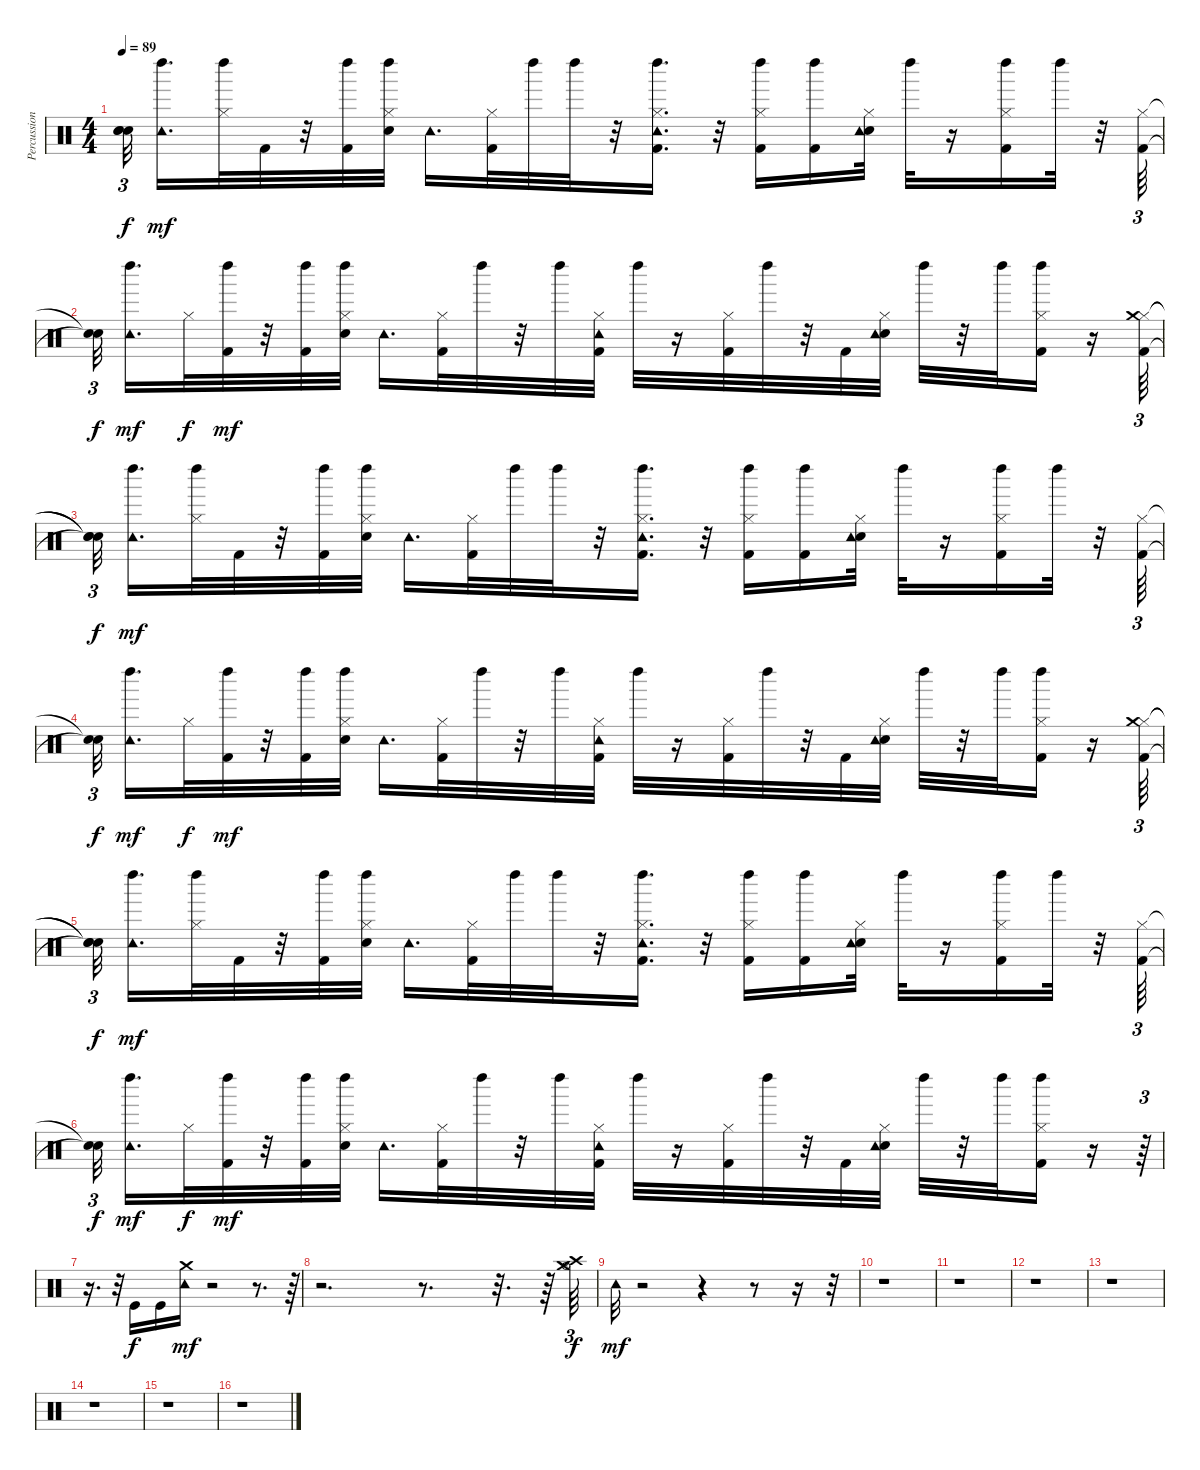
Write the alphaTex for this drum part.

\track ("Percussion" "Percussion") {instrument percussion}
\staff {score}
\articulation defaults
\ts (4 4)
\tempo 89
\clef neutral
\ks c
("Snare (hit)"{t} "Snare (hit)"{t} "Snare (hit)"{t}).32{tu (3 2) dy f} ("Tambourine (hit)" "Left Maraca (hit)").16{d dy mf} ("Hi-Hat (closed)" "Left Maraca (hit)").32 "Kick (hit) 2".32 r.32 ("Left Maraca (hit)" "Kick (hit) 2").32 ("Hi-Hat (closed)" "Left Maraca (hit)" "Snare (hit) 2").32 "Tambourine (hit)".16{d} ("Hi-Hat (closed)" "Kick (hit) 2").32 "Left Maraca (hit)".32 "Left Maraca (hit)".32 r.32 ("Hi-Hat (closed)" "Tambourine (hit)" "Left Maraca (hit)" "Kick (hit) 2").16{d} r.32 ("Hi-Hat (closed)" "Left Maraca (hit)" "Kick (hit) 2").16 ("Left Maraca (hit)" "Kick (hit) 2").16 ("Hi-Hat (closed)" "Snare (hit) 2" "Tambourine (hit)").32 "Left Maraca (hit)".32 r.16 ("Kick (hit) 2" "Hi-Hat (closed)" "Left Maraca (hit)").16 "Left Maraca (hit)".32 r.32 ("Hi-Hat (closed)" "Kick (hit) 2").64{tu (3 2)} |
("Snare (hit)"{t} "Snare (hit)"{t}).32{tu (3 2) dy f} ("Left Maraca (hit)" "Tambourine (hit)").16{d dy mf} "Hi-Hat (closed)".32{dy f} ("Left Maraca (hit)" "Kick (hit) 2").32{dy mf} r.32 ("Kick (hit) 2" "Left Maraca (hit)").32 ("Hi-Hat (closed)" "Snare (hit) 2" "Left Maraca (hit)").32 "Tambourine (hit)".16{d} ("Hi-Hat (closed)" "Kick (hit) 2").32 "Left Maraca (hit)".32 r.32 "Left Maraca (hit)".32 ("Hi-Hat (closed)" "Tambourine (hit)" "Kick (hit) 2").32 "Left Maraca (hit)".32 r.16 ("Hi-Hat (closed)" "Kick (hit) 2").32 "Left Maraca (hit)".32 r.32 "Kick (hit) 2".32 ("Hi-Hat (closed)" "Snare (hit) 2" "Tambourine (hit)").32 "Left Maraca (hit)".32 r.32 "Left Maraca (hit)".32 ("Kick (hit) 2" "Hi-Hat (closed)" "Left Maraca (hit)").16 r.16 ("Hi-Hat (closed)" "Crash medium (hit)" "Kick (hit) 2").64{tu (3 2)} |
("Snare (hit)"{t} "Snare (hit)"{t} "Snare (hit)"{t}).32{tu (3 2) dy f} ("Tambourine (hit)" "Left Maraca (hit)").16{d dy mf} ("Hi-Hat (closed)" "Left Maraca (hit)").32 "Kick (hit) 2".32 r.32 ("Left Maraca (hit)" "Kick (hit) 2").32 ("Hi-Hat (closed)" "Left Maraca (hit)" "Snare (hit) 2").32 "Tambourine (hit)".16{d} ("Hi-Hat (closed)" "Kick (hit) 2").32 "Left Maraca (hit)".32 "Left Maraca (hit)".32 r.32 ("Hi-Hat (closed)" "Tambourine (hit)" "Left Maraca (hit)" "Kick (hit) 2").16{d} r.32 ("Hi-Hat (closed)" "Left Maraca (hit)" "Kick (hit) 2").16 ("Left Maraca (hit)" "Kick (hit) 2").16 ("Hi-Hat (closed)" "Snare (hit) 2" "Tambourine (hit)").32 "Left Maraca (hit)".32 r.16 ("Kick (hit) 2" "Hi-Hat (closed)" "Left Maraca (hit)").16 "Left Maraca (hit)".32 r.32 ("Hi-Hat (closed)" "Kick (hit) 2").64{tu (3 2)} |
("Snare (hit)"{t} "Snare (hit)"{t}).32{tu (3 2) dy f} ("Left Maraca (hit)" "Tambourine (hit)").16{d dy mf} "Hi-Hat (closed)".32{dy f} ("Left Maraca (hit)" "Kick (hit) 2").32{dy mf} r.32 ("Kick (hit) 2" "Left Maraca (hit)").32 ("Hi-Hat (closed)" "Snare (hit) 2" "Left Maraca (hit)").32 "Tambourine (hit)".16{d} ("Hi-Hat (closed)" "Kick (hit) 2").32 "Left Maraca (hit)".32 r.32 "Left Maraca (hit)".32 ("Hi-Hat (closed)" "Tambourine (hit)" "Kick (hit) 2").32 "Left Maraca (hit)".32 r.16 ("Hi-Hat (closed)" "Kick (hit) 2").32 "Left Maraca (hit)".32 r.32 "Kick (hit) 2".32 ("Hi-Hat (closed)" "Snare (hit) 2" "Tambourine (hit)").32 "Left Maraca (hit)".32 r.32 "Left Maraca (hit)".32 ("Kick (hit) 2" "Hi-Hat (closed)" "Left Maraca (hit)").16 r.16 ("Hi-Hat (closed)" "Crash medium (hit)" "Kick (hit) 2").64{tu (3 2)} |
("Snare (hit)"{t} "Snare (hit)"{t} "Snare (hit)"{t}).32{tu (3 2) dy f} ("Tambourine (hit)" "Left Maraca (hit)").16{d dy mf} ("Hi-Hat (closed)" "Left Maraca (hit)").32 "Kick (hit) 2".32 r.32 ("Left Maraca (hit)" "Kick (hit) 2").32 ("Hi-Hat (closed)" "Left Maraca (hit)" "Snare (hit) 2").32 "Tambourine (hit)".16{d} ("Hi-Hat (closed)" "Kick (hit) 2").32 "Left Maraca (hit)".32 "Left Maraca (hit)".32 r.32 ("Hi-Hat (closed)" "Tambourine (hit)" "Left Maraca (hit)" "Kick (hit) 2").16{d} r.32 ("Hi-Hat (closed)" "Left Maraca (hit)" "Kick (hit) 2").16 ("Left Maraca (hit)" "Kick (hit) 2").16 ("Hi-Hat (closed)" "Snare (hit) 2" "Tambourine (hit)").32 "Left Maraca (hit)".32 r.16 ("Kick (hit) 2" "Hi-Hat (closed)" "Left Maraca (hit)").16 "Left Maraca (hit)".32 r.32 ("Hi-Hat (closed)" "Kick (hit) 2").64{tu (3 2)} |
("Snare (hit)"{t} "Snare (hit)"{t}).32{tu (3 2) dy f} ("Left Maraca (hit)" "Tambourine (hit)").16{d dy mf} "Hi-Hat (closed)".32{dy f} ("Left Maraca (hit)" "Kick (hit) 2").32{dy mf} r.32 ("Kick (hit) 2" "Left Maraca (hit)").32 ("Hi-Hat (closed)" "Snare (hit) 2" "Left Maraca (hit)").32 "Tambourine (hit)".16{d} ("Hi-Hat (closed)" "Kick (hit) 2").32 "Left Maraca (hit)".32 r.32 "Left Maraca (hit)".32 ("Hi-Hat (closed)" "Tambourine (hit)" "Kick (hit) 2").32 "Left Maraca (hit)".32 r.16 ("Hi-Hat (closed)" "Kick (hit) 2").32 "Left Maraca (hit)".32 r.32 "Kick (hit) 2".32 ("Hi-Hat (closed)" "Snare (hit) 2" "Tambourine (hit)").32 "Left Maraca (hit)".32 r.32 "Left Maraca (hit)".32 ("Kick (hit) 2" "Hi-Hat (closed)" "Left Maraca (hit)").16 r.16 r.64{tu (3 2)} |
r.16{d} r.32{tu (3 2)} "Kick (hit)".16{dy f} "Kick (hit)".16 ("Crash medium (hit)" "Tambourine (hit)").16{dy mf} r.2 r.8{d} r.64{tu (3 2)} |
r.2{d} r.8{d} r.32{d} r.64 ("Crash medium (hit)" "Crash high (hit)" "Hi-Hat (open)").64{tu (3 2) dy f} |
"Tambourine (hit)".32{dy mf} r.2 r.4 r.8 r.16 r.32 |
r.1 |
r.1 |
r.1 |
r.1 |
r.1 |
r.1 |
r.1
